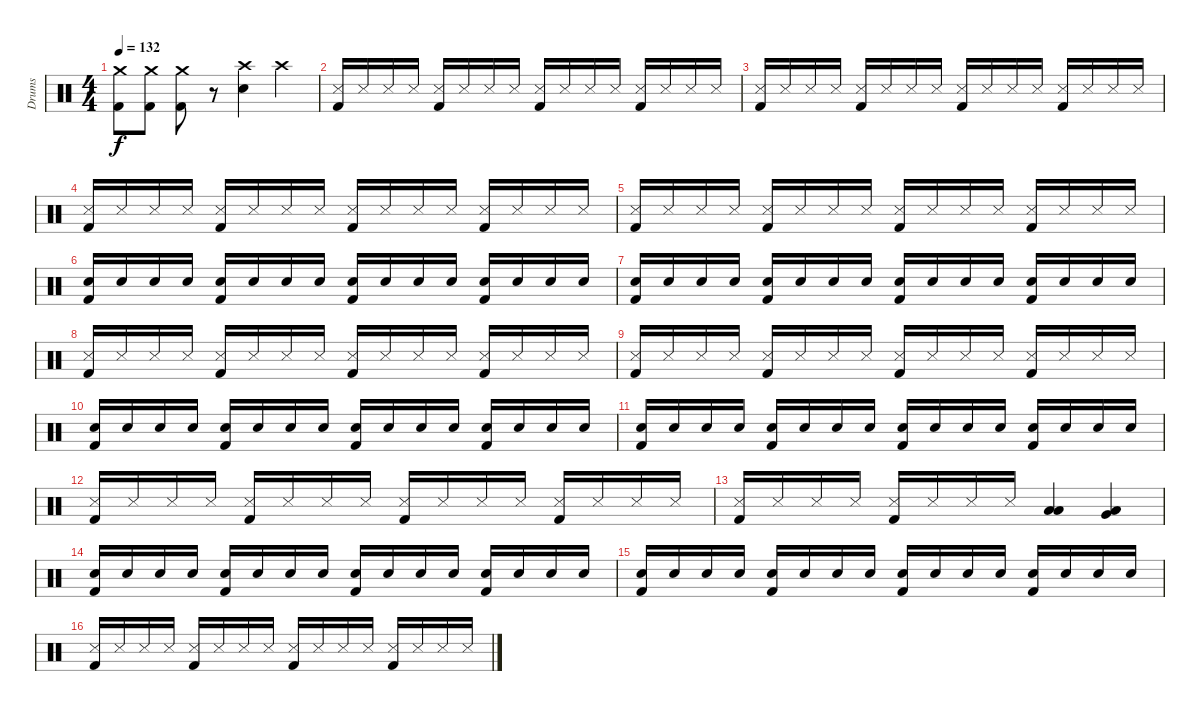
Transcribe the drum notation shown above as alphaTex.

\track ("Drums" "Drums") {instrument percussion}
\staff {score}
\articulation defaults
\ts (4 4)
\tempo 132
\clef neutral
\ks c
("Crash medium (hit)" "Kick (hit) 2").8{dy f} ("Crash medium (hit)" "Kick (hit) 2").8 ("Crash medium (hit)" "Kick (hit) 2").8 r.8 ("Crash high (hit)" "Electric Snare (hit)").4 "Crash high (hit)".4 |
("Snare (side stick) 3" "Kick (hit) 2").16 "Snare (side stick) 3".16 "Snare (side stick) 3".16 "Snare (side stick) 3".16 ("Snare (side stick) 3" "Kick (hit) 2").16 "Snare (side stick) 3".16 "Snare (side stick) 3".16 "Snare (side stick) 3".16 ("Snare (side stick) 3" "Kick (hit) 2").16 "Snare (side stick) 3".16 "Snare (side stick) 3".16 "Snare (side stick) 3".16 ("Snare (side stick) 3" "Kick (hit) 2").16 "Snare (side stick) 3".16 "Snare (side stick) 3".16 "Snare (side stick) 3".16 |
("Snare (side stick) 3" "Kick (hit) 2").16 "Snare (side stick) 3".16 "Snare (side stick) 3".16 "Snare (side stick) 3".16 ("Snare (side stick) 3" "Kick (hit) 2").16 "Snare (side stick) 3".16 "Snare (side stick) 3".16 "Snare (side stick) 3".16 ("Snare (side stick) 3" "Kick (hit) 2").16 "Snare (side stick) 3".16 "Snare (side stick) 3".16 "Snare (side stick) 3".16 ("Snare (side stick) 3" "Kick (hit) 2").16 "Snare (side stick) 3".16 "Snare (side stick) 3".16 "Snare (side stick) 3".16 |
("Snare (side stick) 3" "Kick (hit) 2").16 "Snare (side stick) 3".16 "Snare (side stick) 3".16 "Snare (side stick) 3".16 ("Snare (side stick) 3" "Kick (hit) 2").16 "Snare (side stick) 3".16 "Snare (side stick) 3".16 "Snare (side stick) 3".16 ("Snare (side stick) 3" "Kick (hit) 2").16 "Snare (side stick) 3".16 "Snare (side stick) 3".16 "Snare (side stick) 3".16 ("Snare (side stick) 3" "Kick (hit) 2").16 "Snare (side stick) 3".16 "Snare (side stick) 3".16 "Snare (side stick) 3".16 |
("Snare (side stick) 3" "Kick (hit) 2").16 "Snare (side stick) 3".16 "Snare (side stick) 3".16 "Snare (side stick) 3".16 ("Snare (side stick) 3" "Kick (hit) 2").16 "Snare (side stick) 3".16 "Snare (side stick) 3".16 "Snare (side stick) 3".16 ("Snare (side stick) 3" "Kick (hit) 2").16 "Snare (side stick) 3".16 "Snare (side stick) 3".16 "Snare (side stick) 3".16 ("Snare (side stick) 3" "Kick (hit) 2").16 "Snare (side stick) 3".16 "Snare (side stick) 3".16 "Snare (side stick) 3".16 |
("Electric Snare (hit)" "Kick (hit) 2").16 "Electric Snare (hit)".16 "Electric Snare (hit)".16 "Electric Snare (hit)".16 ("Electric Snare (hit)" "Kick (hit) 2").16 "Electric Snare (hit)".16 "Electric Snare (hit)".16 "Electric Snare (hit)".16 ("Electric Snare (hit)" "Kick (hit) 2").16 "Electric Snare (hit)".16 "Electric Snare (hit)".16 "Electric Snare (hit)".16 ("Electric Snare (hit)" "Kick (hit) 2").16 "Electric Snare (hit)".16 "Electric Snare (hit)".16 "Electric Snare (hit)".16 |
("Electric Snare (hit)" "Kick (hit) 2").16 "Electric Snare (hit)".16 "Electric Snare (hit)".16 "Electric Snare (hit)".16 ("Electric Snare (hit)" "Kick (hit) 2").16 "Electric Snare (hit)".16 "Electric Snare (hit)".16 "Electric Snare (hit)".16 ("Electric Snare (hit)" "Kick (hit) 2").16 "Electric Snare (hit)".16 "Electric Snare (hit)".16 "Electric Snare (hit)".16 ("Electric Snare (hit)" "Kick (hit) 2").16 "Electric Snare (hit)".16 "Electric Snare (hit)".16 "Electric Snare (hit)".16 |
("Snare (side stick) 3" "Kick (hit) 2").16 "Snare (side stick) 3".16 "Snare (side stick) 3".16 "Snare (side stick) 3".16 ("Snare (side stick) 3" "Kick (hit) 2").16 "Snare (side stick) 3".16 "Snare (side stick) 3".16 "Snare (side stick) 3".16 ("Snare (side stick) 3" "Kick (hit) 2").16 "Snare (side stick) 3".16 "Snare (side stick) 3".16 "Snare (side stick) 3".16 ("Snare (side stick) 3" "Kick (hit) 2").16 "Snare (side stick) 3".16 "Snare (side stick) 3".16 "Snare (side stick) 3".16 |
("Snare (side stick) 3" "Kick (hit) 2").16 "Snare (side stick) 3".16 "Snare (side stick) 3".16 "Snare (side stick) 3".16 ("Snare (side stick) 3" "Kick (hit) 2").16 "Snare (side stick) 3".16 "Snare (side stick) 3".16 "Snare (side stick) 3".16 ("Snare (side stick) 3" "Kick (hit) 2").16 "Snare (side stick) 3".16 "Snare (side stick) 3".16 "Snare (side stick) 3".16 ("Snare (side stick) 3" "Kick (hit) 2").16 "Snare (side stick) 3".16 "Snare (side stick) 3".16 "Snare (side stick) 3".16 |
("Electric Snare (hit)" "Kick (hit) 2").16 "Electric Snare (hit)".16 "Electric Snare (hit)".16 "Electric Snare (hit)".16 ("Electric Snare (hit)" "Kick (hit) 2").16 "Electric Snare (hit)".16 "Electric Snare (hit)".16 "Electric Snare (hit)".16 ("Electric Snare (hit)" "Kick (hit) 2").16 "Electric Snare (hit)".16 "Electric Snare (hit)".16 "Electric Snare (hit)".16 ("Electric Snare (hit)" "Kick (hit) 2").16 "Electric Snare (hit)".16 "Electric Snare (hit)".16 "Electric Snare (hit)".16 |
("Electric Snare (hit)" "Kick (hit) 2").16 "Electric Snare (hit)".16 "Electric Snare (hit)".16 "Electric Snare (hit)".16 ("Electric Snare (hit)" "Kick (hit) 2").16 "Electric Snare (hit)".16 "Electric Snare (hit)".16 "Electric Snare (hit)".16 ("Electric Snare (hit)" "Kick (hit) 2").16 "Electric Snare (hit)".16 "Electric Snare (hit)".16 "Electric Snare (hit)".16 ("Electric Snare (hit)" "Kick (hit) 2").16 "Electric Snare (hit)".16 "Electric Snare (hit)".16 "Electric Snare (hit)".16 |
("Snare (side stick) 3" "Kick (hit) 2").16 "Snare (side stick) 3".16 "Snare (side stick) 3".16 "Snare (side stick) 3".16 ("Snare (side stick) 3" "Kick (hit) 2").16 "Snare (side stick) 3".16 "Snare (side stick) 3".16 "Snare (side stick) 3".16 ("Snare (side stick) 3" "Kick (hit) 2").16 "Snare (side stick) 3".16 "Snare (side stick) 3".16 "Snare (side stick) 3".16 ("Snare (side stick) 3" "Kick (hit) 2").16 "Snare (side stick) 3".16 "Snare (side stick) 3".16 "Snare (side stick) 3".16 |
("Snare (side stick) 3" "Kick (hit) 2").16 "Snare (side stick) 3".16 "Snare (side stick) 3".16 "Snare (side stick) 3".16 ("Snare (side stick) 3" "Kick (hit) 2").16 "Snare (side stick) 3".16 "Snare (side stick) 3".16 "Snare (side stick) 3".16 ("Low Tom (hit)" "Low Floor Tom (hit)").4 ("Very Low Tom (hit)" "Low Floor Tom (hit)").4 |
("Electric Snare (hit)" "Kick (hit) 2").16 "Electric Snare (hit)".16 "Electric Snare (hit)".16 "Electric Snare (hit)".16 ("Electric Snare (hit)" "Kick (hit) 2").16 "Electric Snare (hit)".16 "Electric Snare (hit)".16 "Electric Snare (hit)".16 ("Electric Snare (hit)" "Kick (hit) 2").16 "Electric Snare (hit)".16 "Electric Snare (hit)".16 "Electric Snare (hit)".16 ("Electric Snare (hit)" "Kick (hit) 2").16 "Electric Snare (hit)".16 "Electric Snare (hit)".16 "Electric Snare (hit)".16 |
("Electric Snare (hit)" "Kick (hit) 2").16 "Electric Snare (hit)".16 "Electric Snare (hit)".16 "Electric Snare (hit)".16 ("Electric Snare (hit)" "Kick (hit) 2").16 "Electric Snare (hit)".16 "Electric Snare (hit)".16 "Electric Snare (hit)".16 ("Electric Snare (hit)" "Kick (hit) 2").16 "Electric Snare (hit)".16 "Electric Snare (hit)".16 "Electric Snare (hit)".16 ("Electric Snare (hit)" "Kick (hit) 2").16 "Electric Snare (hit)".16 "Electric Snare (hit)".16 "Electric Snare (hit)".16 |
("Snare (side stick) 3" "Kick (hit) 2").16 "Snare (side stick) 3".16 "Snare (side stick) 3".16 "Snare (side stick) 3".16 ("Snare (side stick) 3" "Kick (hit) 2").16 "Snare (side stick) 3".16 "Snare (side stick) 3".16 "Snare (side stick) 3".16 ("Snare (side stick) 3" "Kick (hit) 2").16 "Snare (side stick) 3".16 "Snare (side stick) 3".16 "Snare (side stick) 3".16 ("Snare (side stick) 3" "Kick (hit) 2").16 "Snare (side stick) 3".16 "Snare (side stick) 3".16 "Snare (side stick) 3".16
